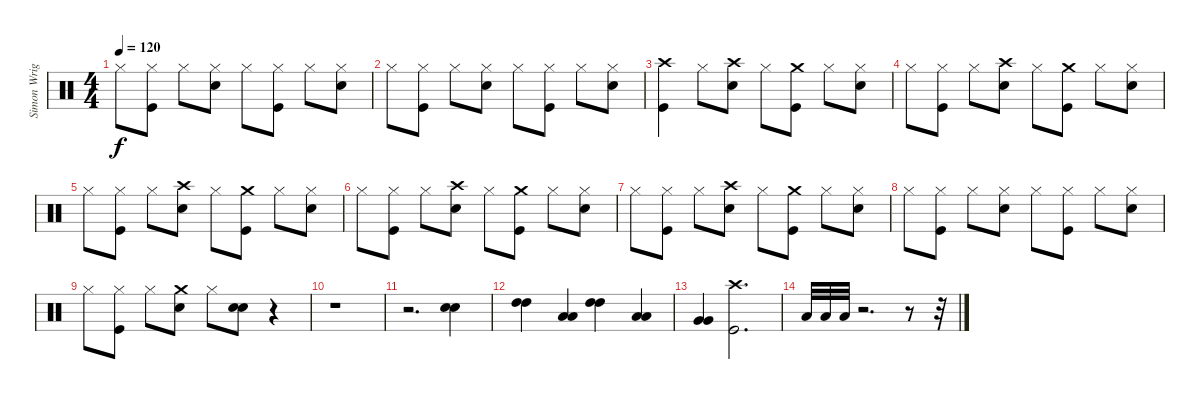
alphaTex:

\track ("Simon Wright" "Simon Wrig") {instrument percussion}
\staff {score}
\articulation defaults
\ts (4 4)
\tempo 120
\clef neutral
\ks c "Hi-Hat (closed)".8{dy f}
("Hi-Hat (closed)" "Kick (hit)").8 "Hi-Hat (closed)".8 ("Hi-Hat (closed)" "Electric Snare (hit)").8 "Hi-Hat (closed)".8 ("Hi-Hat (closed)" "Kick (hit)").8 "Hi-Hat (closed)".8 ("Hi-Hat (closed)" "Electric Snare (hit)").8 |
"Hi-Hat (closed)".8 ("Hi-Hat (closed)" "Kick (hit)").8 "Hi-Hat (closed)".8 ("Hi-Hat (closed)" "Electric Snare (hit)").8 "Hi-Hat (closed)".8 ("Hi-Hat (closed)" "Kick (hit)").8 "Hi-Hat (closed)".8 ("Hi-Hat (closed)" "Electric Snare (hit)").8 |
("Crash high (hit)" "Kick (hit)").4 "Hi-Hat (closed)".8 ("Crash high (hit)" "Electric Snare (hit)").8 "Hi-Hat (closed)".8 ("Crash medium (hit)" "Kick (hit)").8 "Hi-Hat (closed)".8 ("Hi-Hat (closed)" "Electric Snare (hit)").8 |
"Hi-Hat (closed)".8 ("Hi-Hat (closed)" "Kick (hit)").8 "Hi-Hat (closed)".8 ("Crash high (hit)" "Electric Snare (hit)").8 "Hi-Hat (closed)".8 ("Crash medium (hit)" "Kick (hit)").8 "Hi-Hat (closed)".8 ("Hi-Hat (closed)" "Electric Snare (hit)").8 |
"Hi-Hat (closed)".8 ("Hi-Hat (closed)" "Kick (hit)").8 "Hi-Hat (closed)".8 ("Crash high (hit)" "Electric Snare (hit)").8 "Hi-Hat (closed)".8 ("Crash medium (hit)" "Kick (hit)").8 "Hi-Hat (closed)".8 ("Hi-Hat (closed)" "Electric Snare (hit)").8 |
"Hi-Hat (closed)".8 ("Hi-Hat (closed)" "Kick (hit)").8 "Hi-Hat (closed)".8 ("Crash high (hit)" "Electric Snare (hit)").8 "Hi-Hat (closed)".8 ("Crash medium (hit)" "Kick (hit)").8 "Hi-Hat (closed)".8 ("Hi-Hat (closed)" "Electric Snare (hit)").8 |
"Hi-Hat (closed)".8 ("Hi-Hat (closed)" "Kick (hit)").8 "Hi-Hat (closed)".8 ("Crash high (hit)" "Electric Snare (hit)").8 "Hi-Hat (closed)".8 ("Crash medium (hit)" "Kick (hit)").8 "Hi-Hat (closed)".8 ("Hi-Hat (closed)" "Electric Snare (hit)").8 |
"Hi-Hat (closed)".8 ("Hi-Hat (closed)" "Kick (hit)").8 "Hi-Hat (closed)".8 ("Hi-Hat (closed)" "Electric Snare (hit)").8 "Hi-Hat (closed)".8 ("Hi-Hat (closed)" "Kick (hit)").8 "Hi-Hat (closed)".8 ("Hi-Hat (closed)" "Electric Snare (hit)").8 |
"Hi-Hat (closed)".8 ("Hi-Hat (closed)" "Kick (hit)").8 "Hi-Hat (closed)".8 ("Crash medium (hit)" "Electric Snare (hit)").8 "Hi-Hat (closed)".8 ("Electric Snare (hit)" "Electric Snare (hit)").8 r.4 |
r.1 |
r.2{d} ("Electric Snare (hit)" "Electric Snare (hit)").4 |
("High Tom (hit)" "High Tom (hit)").4 ("Low Tom (hit)" "Low Tom (hit)").4 ("High Tom (hit)" "High Tom (hit)").4 ("Low Tom (hit)" "Low Tom (hit)").4 |
("Very Low Tom (hit)" "Very Low Tom (hit)").4 ("Crash high (hit)" "Kick (hit)").2{d} |
"Low Tom (hit)".32 "Low Tom (hit)".32 "Low Tom (hit)".32 r.2{d} r.8 r.32
